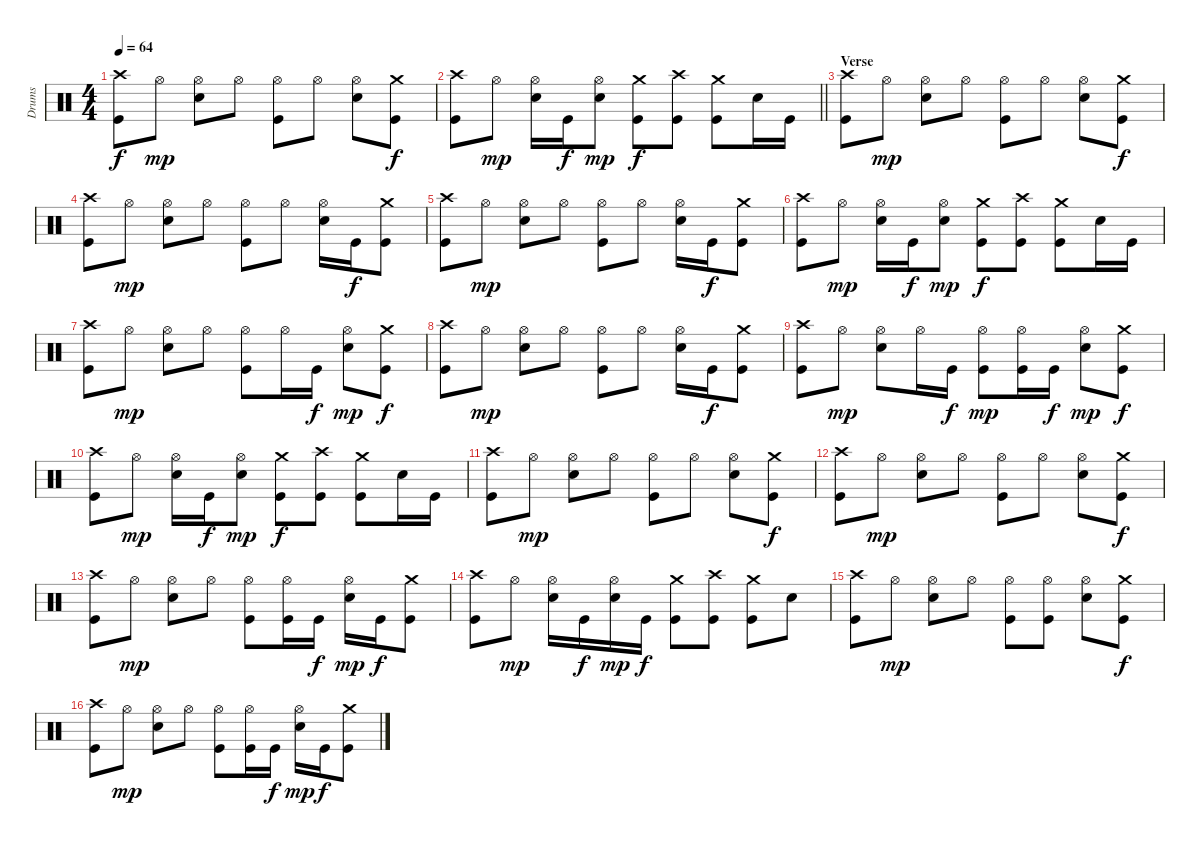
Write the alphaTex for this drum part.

\track ("Drums" "Drums") {instrument percussion}
\staff {score}
\articulation defaults
\ts (4 4)
\tempo 64
\clef neutral
\ks c
("Crash high (hit)" "Kick (hit)").8{dy f} "Hi-Hat (open)".8{dy mp} ("Hi-Hat (open)" "Snare (hit) 2").8 "Hi-Hat (open)".8 ("Hi-Hat (open)" "Kick (hit)").8 "Hi-Hat (open)".8 ("Hi-Hat (open)" "Snare (hit) 2").8 ("Crash medium (hit)" "Kick (hit)").8{dy f} |
\barLineRight lightlight
("Crash high (hit)" "Kick (hit)").8 "Hi-Hat (open)".8{dy mp} ("Hi-Hat (open)" "Snare (hit) 2").16 "Kick (hit)".16{dy f} ("Hi-Hat (open)" "Snare (hit) 2").8{dy mp} ("Crash medium (hit)" "Kick (hit)").8{dy f} ("Crash high (hit)" "Kick (hit)").8 ("Crash medium (hit)" "Kick (hit)").8 "Snare (hit) 2".16 "Kick (hit)".16 |
\section ("" "Verse")
("Crash high (hit)" "Kick (hit)").8 "Hi-Hat (open)".8{dy mp} ("Hi-Hat (open)" "Snare (hit) 2").8 "Hi-Hat (open)".8 ("Hi-Hat (open)" "Kick (hit)").8 "Hi-Hat (open)".8 ("Hi-Hat (open)" "Snare (hit) 2").8 ("Crash medium (hit)" "Kick (hit)").8{dy f} |
("Crash high (hit)" "Kick (hit)").8 "Hi-Hat (open)".8{dy mp} ("Hi-Hat (open)" "Snare (hit) 2").8 "Hi-Hat (open)".8 ("Hi-Hat (open)" "Kick (hit)").8 "Hi-Hat (open)".8 ("Hi-Hat (open)" "Snare (hit) 2").16 "Kick (hit)".16{dy f} ("Crash medium (hit)" "Kick (hit)").8 |
("Crash high (hit)" "Kick (hit)").8 "Hi-Hat (open)".8{dy mp} ("Hi-Hat (open)" "Snare (hit) 2").8 "Hi-Hat (open)".8 ("Hi-Hat (open)" "Kick (hit)").8 "Hi-Hat (open)".8 ("Hi-Hat (open)" "Snare (hit) 2").16 "Kick (hit)".16{dy f} ("Crash medium (hit)" "Kick (hit)").8 |
("Crash high (hit)" "Kick (hit)").8 "Hi-Hat (open)".8{dy mp} ("Hi-Hat (open)" "Snare (hit) 2").16 "Kick (hit)".16{dy f} ("Hi-Hat (open)" "Snare (hit) 2").8{dy mp} ("Crash medium (hit)" "Kick (hit)").8{dy f} ("Crash high (hit)" "Kick (hit)").8 ("Crash medium (hit)" "Kick (hit)").8 "Snare (hit) 2".16 "Kick (hit)".16 |
("Crash high (hit)" "Kick (hit)").8 "Hi-Hat (open)".8{dy mp} ("Hi-Hat (open)" "Snare (hit) 2").8 "Hi-Hat (open)".8 ("Hi-Hat (open)" "Kick (hit)").8 "Hi-Hat (open)".16 "Kick (hit)".16{dy f} ("Hi-Hat (open)" "Snare (hit) 2").8{dy mp} ("Crash medium (hit)" "Kick (hit)").8{dy f} |
("Crash high (hit)" "Kick (hit)").8 "Hi-Hat (open)".8{dy mp} ("Hi-Hat (open)" "Snare (hit) 2").8 "Hi-Hat (open)".8 ("Hi-Hat (open)" "Kick (hit)").8 "Hi-Hat (open)".8 ("Hi-Hat (open)" "Snare (hit) 2").16 "Kick (hit)".16{dy f} ("Crash medium (hit)" "Kick (hit)").8 |
("Crash high (hit)" "Kick (hit)").8 "Hi-Hat (open)".8{dy mp} ("Hi-Hat (open)" "Snare (hit) 2").8 "Hi-Hat (open)".16 "Kick (hit)".16{dy f} ("Hi-Hat (open)" "Kick (hit)").8{dy mp} ("Hi-Hat (open)" "Kick (hit)").16 "Kick (hit)".16{dy f} ("Hi-Hat (open)" "Snare (hit) 2").8{dy mp} ("Crash medium (hit)" "Kick (hit)").8{dy f} |
("Crash high (hit)" "Kick (hit)").8 "Hi-Hat (open)".8{dy mp} ("Hi-Hat (open)" "Snare (hit) 2").16 "Kick (hit)".16{dy f} ("Hi-Hat (open)" "Snare (hit) 2").8{dy mp} ("Crash medium (hit)" "Kick (hit)").8{dy f} ("Crash high (hit)" "Kick (hit)").8 ("Crash medium (hit)" "Kick (hit)").8 "Snare (hit) 2".16 "Kick (hit)".16 |
("Crash high (hit)" "Kick (hit)").8 "Hi-Hat (open)".8{dy mp} ("Hi-Hat (open)" "Snare (hit) 2").8 "Hi-Hat (open)".8 ("Hi-Hat (open)" "Kick (hit)").8 "Hi-Hat (open)".8 ("Hi-Hat (open)" "Snare (hit) 2").8 ("Crash medium (hit)" "Kick (hit)").8{dy f} |
("Crash high (hit)" "Kick (hit)").8 "Hi-Hat (open)".8{dy mp} ("Hi-Hat (open)" "Snare (hit) 2").8 "Hi-Hat (open)".8 ("Hi-Hat (open)" "Kick (hit)").8 "Hi-Hat (open)".8 ("Hi-Hat (open)" "Snare (hit) 2").8 ("Crash medium (hit)" "Kick (hit)").8{dy f} |
("Crash high (hit)" "Kick (hit)").8 "Hi-Hat (open)".8{dy mp} ("Hi-Hat (open)" "Snare (hit) 2").8 "Hi-Hat (open)".8 ("Hi-Hat (open)" "Kick (hit)").8 ("Hi-Hat (open)" "Kick (hit)").16 "Kick (hit)".16{dy f} ("Hi-Hat (open)" "Snare (hit) 2").16{dy mp} "Kick (hit)".16{dy f} ("Crash medium (hit)" "Kick (hit)").8 |
("Crash high (hit)" "Kick (hit)").8 "Hi-Hat (open)".8{dy mp} ("Hi-Hat (open)" "Snare (hit) 2").16 "Kick (hit)".16{dy f} ("Hi-Hat (open)" "Snare (hit) 2").16{dy mp} "Kick (hit)".16{dy f} ("Crash medium (hit)" "Kick (hit)").8 ("Crash high (hit)" "Kick (hit)").8 ("Crash medium (hit)" "Kick (hit)").8 "Snare (hit) 2".8 |
("Crash high (hit)" "Kick (hit)").8 "Hi-Hat (open)".8{dy mp} ("Hi-Hat (open)" "Snare (hit) 2").8 "Hi-Hat (open)".8 ("Hi-Hat (open)" "Kick (hit)").8 ("Hi-Hat (open)" "Kick (hit)").8 ("Hi-Hat (open)" "Snare (hit) 2").8 ("Crash medium (hit)" "Kick (hit)").8{dy f} |
("Crash high (hit)" "Kick (hit)").8 "Hi-Hat (open)".8{dy mp} ("Hi-Hat (open)" "Snare (hit) 2").8 "Hi-Hat (open)".8 ("Hi-Hat (open)" "Kick (hit)").8 ("Hi-Hat (open)" "Kick (hit)").16 "Kick (hit)".16{dy f} ("Hi-Hat (open)" "Snare (hit) 2").16{dy mp} "Kick (hit)".16{dy f} ("Crash medium (hit)" "Kick (hit)").8
